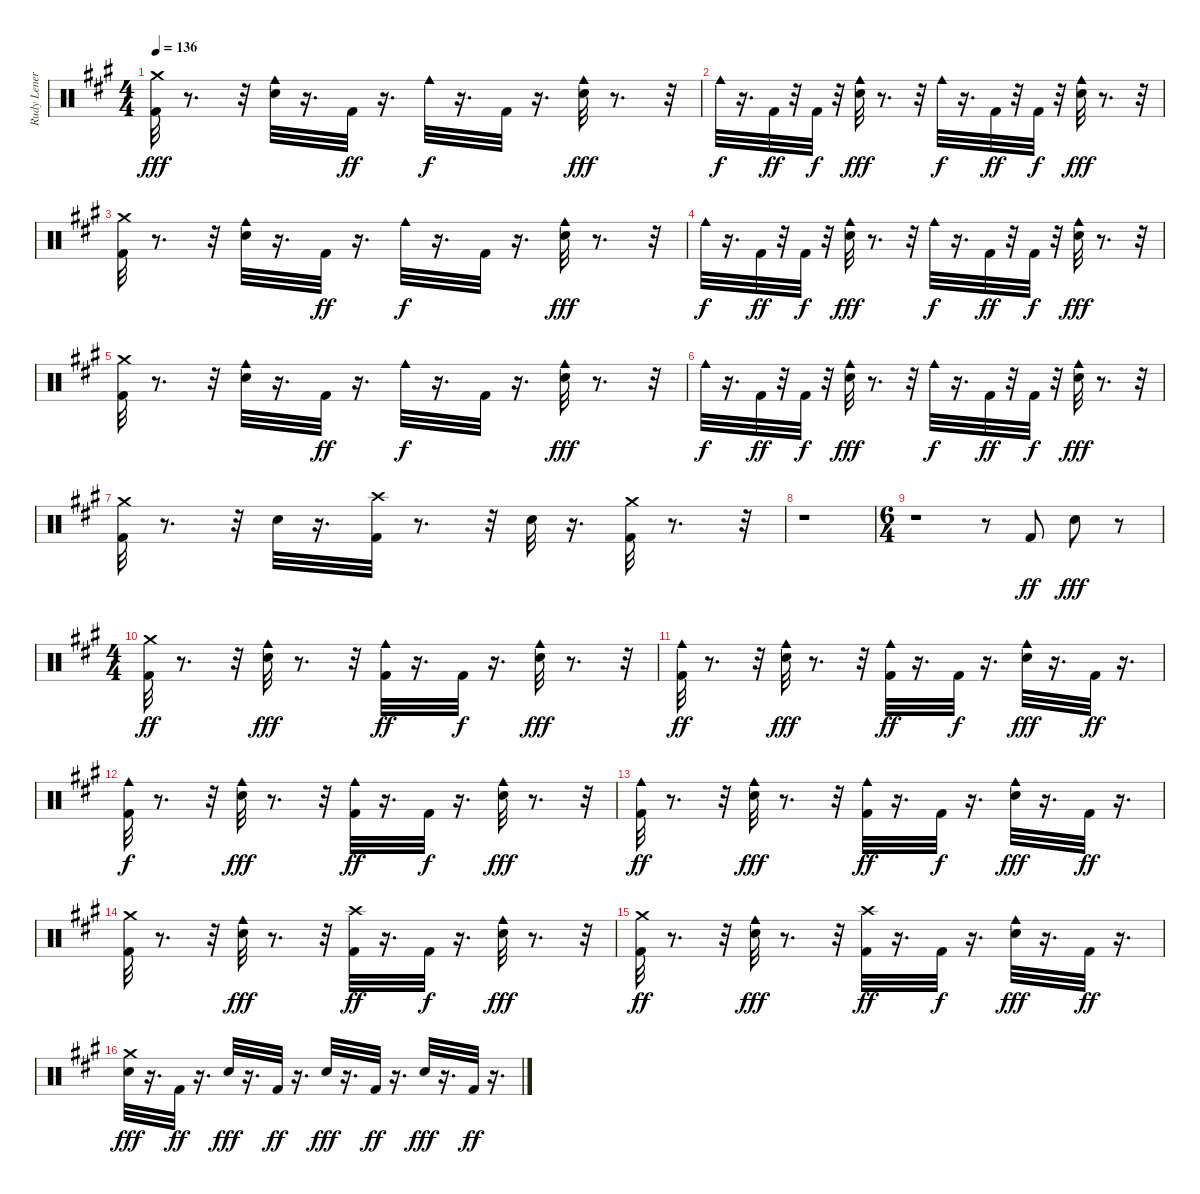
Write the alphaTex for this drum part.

\track ("Rudy Leners" "Rudy Lener") {instrument percussion}
\staff {score}
\articulation defaults
\ts (4 4)
\tempo 136
\clef neutral
\ks a
("Kick (hit) 2" "Crash medium (hit)").32{dy fff} r.8{d} r.32 ("Cowbell medium (hit)" "Snare (hit) 2").32 r.16{d} "Kick (hit) 2".32{dy ff} r.16{d} "Cowbell medium (hit)".32{dy f} r.16{d} "Kick (hit) 2".32 r.16{d} ("Cowbell medium (hit)" "Snare (hit) 2").32{dy fff} r.8{d} r.32 |
"Cowbell medium (hit)".32{dy f} r.16{d} "Kick (hit) 2".32{dy ff} r.32 "Kick (hit) 2".32{dy f} r.32 ("Cowbell medium (hit)" "Snare (hit) 2").32{dy fff} r.8{d} r.32 "Cowbell medium (hit)".32{dy f} r.16{d} "Kick (hit) 2".32{dy ff} r.32 "Kick (hit) 2".32{dy f} r.32 ("Cowbell medium (hit)" "Snare (hit) 2").32{dy fff} r.8{d} r.32 |
("Kick (hit) 2" "Crash medium (hit)").32 r.8{d} r.32 ("Cowbell medium (hit)" "Snare (hit) 2").32 r.16{d} "Kick (hit) 2".32{dy ff} r.16{d} "Cowbell medium (hit)".32{dy f} r.16{d} "Kick (hit) 2".32 r.16{d} ("Cowbell medium (hit)" "Snare (hit) 2").32{dy fff} r.8{d} r.32 |
"Cowbell medium (hit)".32{dy f} r.16{d} "Kick (hit) 2".32{dy ff} r.32 "Kick (hit) 2".32{dy f} r.32 ("Cowbell medium (hit)" "Snare (hit) 2").32{dy fff} r.8{d} r.32 "Cowbell medium (hit)".32{dy f} r.16{d} "Kick (hit) 2".32{dy ff} r.32 "Kick (hit) 2".32{dy f} r.32 ("Cowbell medium (hit)" "Snare (hit) 2").32{dy fff} r.8{d} r.32 |
("Kick (hit) 2" "Crash medium (hit)").32 r.8{d} r.32 ("Cowbell medium (hit)" "Snare (hit) 2").32 r.16{d} "Kick (hit) 2".32{dy ff} r.16{d} "Cowbell medium (hit)".32{dy f} r.16{d} "Kick (hit) 2".32 r.16{d} ("Cowbell medium (hit)" "Snare (hit) 2").32{dy fff} r.8{d} r.32 |
"Cowbell medium (hit)".32{dy f} r.16{d} "Kick (hit) 2".32{dy ff} r.32 "Kick (hit) 2".32{dy f} r.32 ("Cowbell medium (hit)" "Snare (hit) 2").32{dy fff} r.8{d} r.32 "Cowbell medium (hit)".32{dy f} r.16{d} "Kick (hit) 2".32{dy ff} r.32 "Kick (hit) 2".32{dy f} r.32 ("Cowbell medium (hit)" "Snare (hit) 2").32{dy fff} r.8{d} r.32 |
("Kick (hit) 2" "Crash medium (hit)").32 r.8{d} r.32 "Snare (hit) 2".32 r.16{d} ("Kick (hit) 2" "Crash high (hit)").32 r.8{d} r.32 "Snare (hit) 2".32 r.16{d} ("Kick (hit) 2" "Crash medium (hit)").32 r.8{d} r.32 |
r.1 |
\ts (6 4)
r.1 r.8 "Kick (hit) 2".8{dy ff} "Snare (hit) 2".8{dy fff} r.8 |
\ts (4 4)
("Crash medium (hit)" "Kick (hit) 2").32{dy ff} r.8{d} r.32 ("Snare (hit) 2" "Cowbell medium (hit)").32{dy fff} r.8{d} r.32 ("Kick (hit) 2" "Cowbell medium (hit)").32{dy ff} r.16{d} "Kick (hit) 2".32{dy f} r.16{d} ("Snare (hit) 2" "Cowbell medium (hit)").32{dy fff} r.8{d} r.32 |
("Cowbell medium (hit)" "Kick (hit) 2").32{dy ff} r.8{d} r.32 ("Cowbell medium (hit)" "Snare (hit) 2").32{dy fff} r.8{d} r.32 ("Cowbell medium (hit)" "Kick (hit) 2").32{dy ff} r.16{d} "Kick (hit) 2".32{dy f} r.16{d} ("Cowbell medium (hit)" "Snare (hit) 2").32{dy fff} r.16{d} "Kick (hit) 2".32{dy ff} r.16{d} |
("Kick (hit) 2" "Cowbell medium (hit)").32{dy f} r.8{d} r.32 ("Snare (hit) 2" "Cowbell medium (hit)").32{dy fff} r.8{d} r.32 ("Kick (hit) 2" "Cowbell medium (hit)").32{dy ff} r.16{d} "Kick (hit) 2".32{dy f} r.16{d} ("Snare (hit) 2" "Cowbell medium (hit)").32{dy fff} r.8{d} r.32 |
("Cowbell medium (hit)" "Kick (hit) 2").32{dy ff} r.8{d} r.32 ("Cowbell medium (hit)" "Snare (hit) 2").32{dy fff} r.8{d} r.32 ("Cowbell medium (hit)" "Kick (hit) 2").32{dy ff} r.16{d} "Kick (hit) 2".32{dy f} r.16{d} ("Cowbell medium (hit)" "Snare (hit) 2").32{dy fff} r.16{d} "Kick (hit) 2".32{dy ff} r.16{d} |
("Crash medium (hit)" "Kick (hit) 2").32 r.8{d} r.32 ("Snare (hit) 2" "Cowbell medium (hit)").32{dy fff} r.8{d} r.32 ("Crash high (hit)" "Kick (hit) 2").32{dy ff} r.16{d} "Kick (hit) 2".32{dy f} r.16{d} ("Snare (hit) 2" "Cowbell medium (hit)").32{dy fff} r.8{d} r.32 |
("Crash medium (hit)" "Kick (hit) 2").32{dy ff} r.8{d} r.32 ("Cowbell medium (hit)" "Snare (hit) 2").32{dy fff} r.8{d} r.32 ("Crash high (hit)" "Kick (hit) 2").32{dy ff} r.16{d} "Kick (hit) 2".32{dy f} r.16{d} ("Cowbell medium (hit)" "Snare (hit) 2").32{dy fff} r.16{d} "Kick (hit) 2".32{dy ff} r.16{d} |
("Crash medium (hit)" "Snare (hit) 2").32{dy fff} r.16{d} "Kick (hit) 2".32{dy ff} r.16{d} "Snare (hit) 2".32{dy fff} r.16{d} "Kick (hit) 2".32{dy ff} r.16{d} "Snare (hit) 2".32{dy fff} r.16{d} "Kick (hit) 2".32{dy ff} r.16{d} "Snare (hit) 2".32{dy fff} r.16{d} "Kick (hit) 2".32{dy ff} r.16{d}
